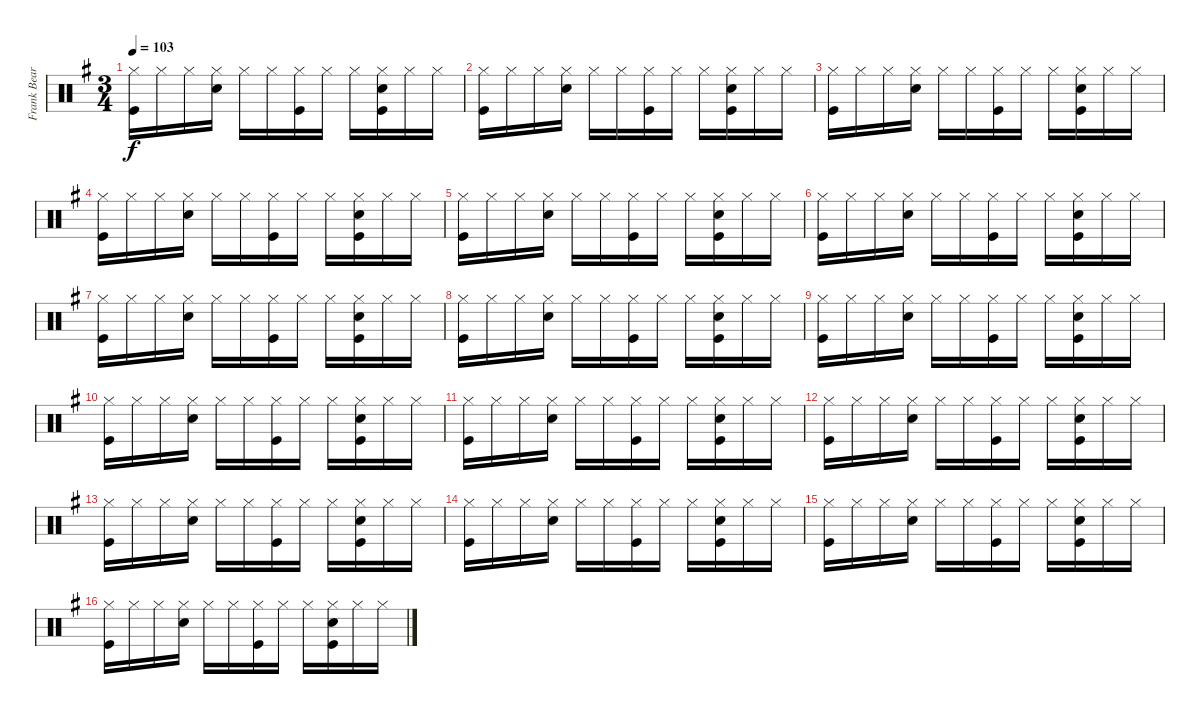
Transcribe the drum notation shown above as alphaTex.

\track ("Frank Beard Drums" "Frank Bear") {instrument percussion}
\staff {score}
\articulation defaults
\ts (3 4)
\tempo 103
\clef neutral
\ks g
("Hi-Hat (closed)" "Kick (hit)").16{dy f} "Hi-Hat (closed)".16 "Hi-Hat (closed)".16 ("Hi-Hat (closed)" "Snare (hit) 2").16 "Hi-Hat (closed)".16 "Hi-Hat (closed)".16 ("Hi-Hat (closed)" "Kick (hit)").16 "Hi-Hat (closed)".16 "Hi-Hat (closed)".16 ("Hi-Hat (closed)" "Snare (hit) 2" "Kick (hit)").16 "Hi-Hat (closed)".16 "Hi-Hat (closed)".16 |
("Hi-Hat (closed)" "Kick (hit)").16 "Hi-Hat (closed)".16 "Hi-Hat (closed)".16 ("Hi-Hat (closed)" "Snare (hit) 2").16 "Hi-Hat (closed)".16 "Hi-Hat (closed)".16 ("Hi-Hat (closed)" "Kick (hit)").16 "Hi-Hat (closed)".16 "Hi-Hat (closed)".16 ("Hi-Hat (closed)" "Snare (hit) 2" "Kick (hit)").16 "Hi-Hat (closed)".16 "Hi-Hat (closed)".16 |
("Hi-Hat (closed)" "Kick (hit)").16 "Hi-Hat (closed)".16 "Hi-Hat (closed)".16 ("Hi-Hat (closed)" "Snare (hit) 2").16 "Hi-Hat (closed)".16 "Hi-Hat (closed)".16 ("Hi-Hat (closed)" "Kick (hit)").16 "Hi-Hat (closed)".16 "Hi-Hat (closed)".16 ("Hi-Hat (closed)" "Snare (hit) 2" "Kick (hit)").16 "Hi-Hat (closed)".16 "Hi-Hat (closed)".16 |
("Hi-Hat (closed)" "Kick (hit)").16 "Hi-Hat (closed)".16 "Hi-Hat (closed)".16 ("Hi-Hat (closed)" "Snare (hit) 2").16 "Hi-Hat (closed)".16 "Hi-Hat (closed)".16 ("Hi-Hat (closed)" "Kick (hit)").16 "Hi-Hat (closed)".16 "Hi-Hat (closed)".16 ("Hi-Hat (closed)" "Snare (hit) 2" "Kick (hit)").16 "Hi-Hat (closed)".16 "Hi-Hat (closed)".16 |
("Hi-Hat (closed)" "Kick (hit)").16 "Hi-Hat (closed)".16 "Hi-Hat (closed)".16 ("Hi-Hat (closed)" "Snare (hit) 2").16 "Hi-Hat (closed)".16 "Hi-Hat (closed)".16 ("Hi-Hat (closed)" "Kick (hit)").16 "Hi-Hat (closed)".16 "Hi-Hat (closed)".16 ("Hi-Hat (closed)" "Snare (hit) 2" "Kick (hit)").16 "Hi-Hat (closed)".16 "Hi-Hat (closed)".16 |
("Hi-Hat (closed)" "Kick (hit)").16 "Hi-Hat (closed)".16 "Hi-Hat (closed)".16 ("Hi-Hat (closed)" "Snare (hit) 2").16 "Hi-Hat (closed)".16 "Hi-Hat (closed)".16 ("Hi-Hat (closed)" "Kick (hit)").16 "Hi-Hat (closed)".16 "Hi-Hat (closed)".16 ("Hi-Hat (closed)" "Snare (hit) 2" "Kick (hit)").16 "Hi-Hat (closed)".16 "Hi-Hat (closed)".16 |
("Hi-Hat (closed)" "Kick (hit)").16 "Hi-Hat (closed)".16 "Hi-Hat (closed)".16 ("Hi-Hat (closed)" "Snare (hit) 2").16 "Hi-Hat (closed)".16 "Hi-Hat (closed)".16 ("Hi-Hat (closed)" "Kick (hit)").16 "Hi-Hat (closed)".16 "Hi-Hat (closed)".16 ("Hi-Hat (closed)" "Snare (hit) 2" "Kick (hit)").16 "Hi-Hat (closed)".16 "Hi-Hat (closed)".16 |
("Hi-Hat (closed)" "Kick (hit)").16 "Hi-Hat (closed)".16 "Hi-Hat (closed)".16 ("Hi-Hat (closed)" "Snare (hit) 2").16 "Hi-Hat (closed)".16 "Hi-Hat (closed)".16 ("Hi-Hat (closed)" "Kick (hit)").16 "Hi-Hat (closed)".16 "Hi-Hat (closed)".16 ("Hi-Hat (closed)" "Snare (hit) 2" "Kick (hit)").16 "Hi-Hat (closed)".16 "Hi-Hat (closed)".16 |
("Hi-Hat (closed)" "Kick (hit)").16 "Hi-Hat (closed)".16 "Hi-Hat (closed)".16 ("Hi-Hat (closed)" "Snare (hit) 2").16 "Hi-Hat (closed)".16 "Hi-Hat (closed)".16 ("Hi-Hat (closed)" "Kick (hit)").16 "Hi-Hat (closed)".16 "Hi-Hat (closed)".16 ("Hi-Hat (closed)" "Snare (hit) 2" "Kick (hit)").16 "Hi-Hat (closed)".16 "Hi-Hat (closed)".16 |
("Hi-Hat (closed)" "Kick (hit)").16 "Hi-Hat (closed)".16 "Hi-Hat (closed)".16 ("Hi-Hat (closed)" "Snare (hit) 2").16 "Hi-Hat (closed)".16 "Hi-Hat (closed)".16 ("Hi-Hat (closed)" "Kick (hit)").16 "Hi-Hat (closed)".16 "Hi-Hat (closed)".16 ("Hi-Hat (closed)" "Snare (hit) 2" "Kick (hit)").16 "Hi-Hat (closed)".16 "Hi-Hat (closed)".16 |
("Hi-Hat (closed)" "Kick (hit)").16 "Hi-Hat (closed)".16 "Hi-Hat (closed)".16 ("Hi-Hat (closed)" "Snare (hit) 2").16 "Hi-Hat (closed)".16 "Hi-Hat (closed)".16 ("Hi-Hat (closed)" "Kick (hit)").16 "Hi-Hat (closed)".16 "Hi-Hat (closed)".16 ("Hi-Hat (closed)" "Snare (hit) 2" "Kick (hit)").16 "Hi-Hat (closed)".16 "Hi-Hat (closed)".16 |
("Hi-Hat (closed)" "Kick (hit)").16 "Hi-Hat (closed)".16 "Hi-Hat (closed)".16 ("Hi-Hat (closed)" "Snare (hit) 2").16 "Hi-Hat (closed)".16 "Hi-Hat (closed)".16 ("Hi-Hat (closed)" "Kick (hit)").16 "Hi-Hat (closed)".16 "Hi-Hat (closed)".16 ("Hi-Hat (closed)" "Snare (hit) 2" "Kick (hit)").16 "Hi-Hat (closed)".16 "Hi-Hat (closed)".16 |
("Hi-Hat (closed)" "Kick (hit)").16 "Hi-Hat (closed)".16 "Hi-Hat (closed)".16 ("Hi-Hat (closed)" "Snare (hit) 2").16 "Hi-Hat (closed)".16 "Hi-Hat (closed)".16 ("Hi-Hat (closed)" "Kick (hit)").16 "Hi-Hat (closed)".16 "Hi-Hat (closed)".16 ("Hi-Hat (closed)" "Snare (hit) 2" "Kick (hit)").16 "Hi-Hat (closed)".16 "Hi-Hat (closed)".16 |
("Hi-Hat (closed)" "Kick (hit)").16 "Hi-Hat (closed)".16 "Hi-Hat (closed)".16 ("Hi-Hat (closed)" "Snare (hit) 2").16 "Hi-Hat (closed)".16 "Hi-Hat (closed)".16 ("Hi-Hat (closed)" "Kick (hit)").16 "Hi-Hat (closed)".16 "Hi-Hat (closed)".16 ("Hi-Hat (closed)" "Snare (hit) 2" "Kick (hit)").16 "Hi-Hat (closed)".16 "Hi-Hat (closed)".16 |
("Hi-Hat (closed)" "Kick (hit)").16 "Hi-Hat (closed)".16 "Hi-Hat (closed)".16 ("Hi-Hat (closed)" "Snare (hit) 2").16 "Hi-Hat (closed)".16 "Hi-Hat (closed)".16 ("Hi-Hat (closed)" "Kick (hit)").16 "Hi-Hat (closed)".16 "Hi-Hat (closed)".16 ("Hi-Hat (closed)" "Snare (hit) 2" "Kick (hit)").16 "Hi-Hat (closed)".16 "Hi-Hat (closed)".16 |
("Hi-Hat (closed)" "Kick (hit)").16 "Hi-Hat (closed)".16 "Hi-Hat (closed)".16 ("Hi-Hat (closed)" "Snare (hit) 2").16 "Hi-Hat (closed)".16 "Hi-Hat (closed)".16 ("Hi-Hat (closed)" "Kick (hit)").16 "Hi-Hat (closed)".16 "Hi-Hat (closed)".16 ("Hi-Hat (closed)" "Snare (hit) 2" "Kick (hit)").16 "Hi-Hat (closed)".16 "Hi-Hat (closed)".16
